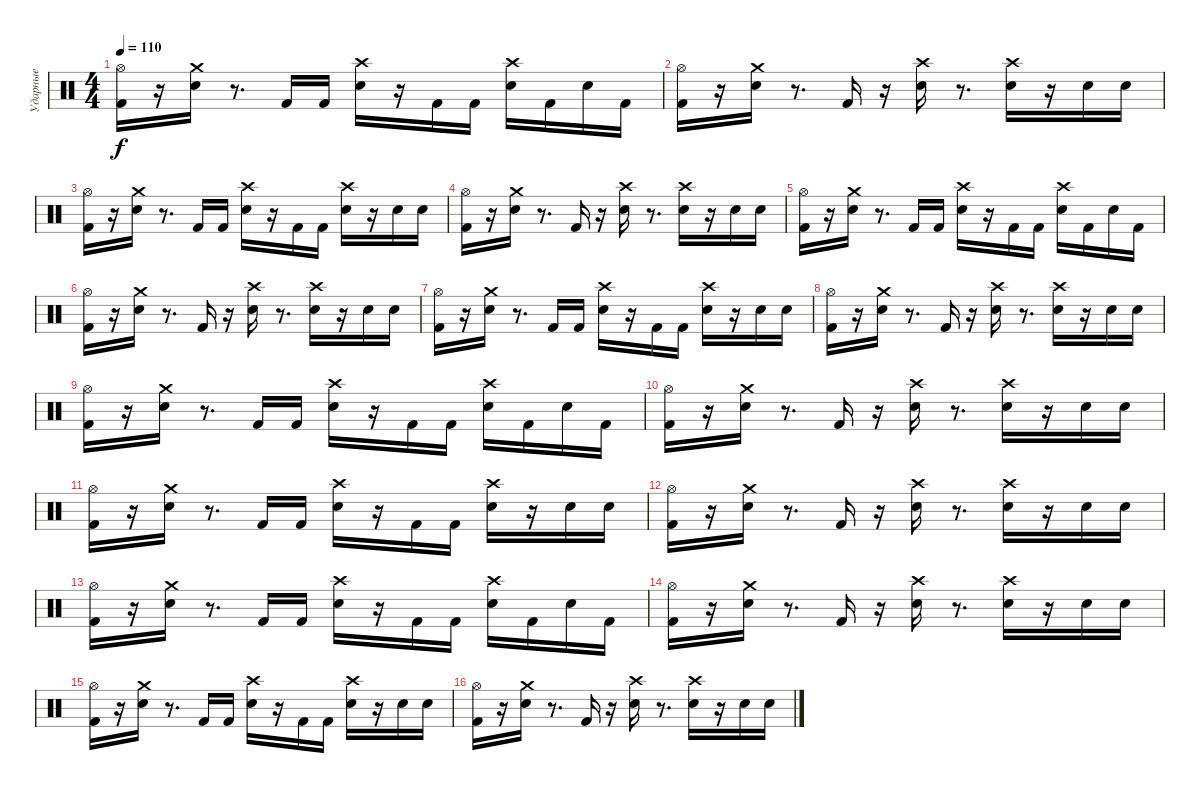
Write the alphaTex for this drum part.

\track ("Ударные" "Ударные") {instrument percussion}
\staff {score}
\articulation defaults
\ts (4 4)
\tempo 110
\clef neutral
\ks c
("Hi-Hat (open)" "Kick (hit) 2").16{dy f} r.16 ("Crash medium (hit)" "Electric Snare (hit)").16 r.8{d} "Kick (hit) 2".16 "Kick (hit) 2".16 ("Crash high (hit)" "Electric Snare (hit)").16 r.16 "Kick (hit) 2".16 "Kick (hit) 2".16 ("Crash high (hit)" "Electric Snare (hit)").16 "Kick (hit) 2".16 "Electric Snare (hit)".16 "Kick (hit) 2".16 |
("Hi-Hat (open)" "Kick (hit) 2").16 r.16 ("Crash medium (hit)" "Electric Snare (hit)").16 r.8{d} "Kick (hit) 2".16 r.16 ("Crash high (hit)" "Electric Snare (hit)").16 r.8{d} ("Crash high (hit)" "Electric Snare (hit)").16 r.16 "Electric Snare (hit)".16 "Electric Snare (hit)".16 |
("Hi-Hat (open)" "Kick (hit) 2").16 r.16 ("Crash medium (hit)" "Electric Snare (hit)").16 r.8{d} "Kick (hit) 2".16 "Kick (hit) 2".16 ("Crash high (hit)" "Electric Snare (hit)").16 r.16 "Kick (hit) 2".16 "Kick (hit) 2".16 ("Crash high (hit)" "Electric Snare (hit)").16 r.16 "Electric Snare (hit)".16 "Electric Snare (hit)".16 |
("Hi-Hat (open)" "Kick (hit) 2").16 r.16 ("Crash medium (hit)" "Electric Snare (hit)").16 r.8{d} "Kick (hit) 2".16 r.16 ("Crash high (hit)" "Electric Snare (hit)").16 r.8{d} ("Crash high (hit)" "Electric Snare (hit)").16 r.16 "Electric Snare (hit)".16 "Electric Snare (hit)".16 |
("Hi-Hat (open)" "Kick (hit) 2").16 r.16 ("Crash medium (hit)" "Electric Snare (hit)").16 r.8{d} "Kick (hit) 2".16 "Kick (hit) 2".16 ("Crash high (hit)" "Electric Snare (hit)").16 r.16 "Kick (hit) 2".16 "Kick (hit) 2".16 ("Crash high (hit)" "Electric Snare (hit)").16 "Kick (hit) 2".16 "Electric Snare (hit)".16 "Kick (hit) 2".16 |
("Hi-Hat (open)" "Kick (hit) 2").16 r.16 ("Crash medium (hit)" "Electric Snare (hit)").16 r.8{d} "Kick (hit) 2".16 r.16 ("Crash high (hit)" "Electric Snare (hit)").16 r.8{d} ("Crash high (hit)" "Electric Snare (hit)").16 r.16 "Electric Snare (hit)".16 "Electric Snare (hit)".16 |
("Hi-Hat (open)" "Kick (hit) 2").16 r.16 ("Crash medium (hit)" "Electric Snare (hit)").16 r.8{d} "Kick (hit) 2".16 "Kick (hit) 2".16 ("Crash high (hit)" "Electric Snare (hit)").16 r.16 "Kick (hit) 2".16 "Kick (hit) 2".16 ("Crash high (hit)" "Electric Snare (hit)").16 r.16 "Electric Snare (hit)".16 "Electric Snare (hit)".16 |
("Hi-Hat (open)" "Kick (hit) 2").16 r.16 ("Crash medium (hit)" "Electric Snare (hit)").16 r.8{d} "Kick (hit) 2".16 r.16 ("Crash high (hit)" "Electric Snare (hit)").16 r.8{d} ("Crash high (hit)" "Electric Snare (hit)").16 r.16 "Electric Snare (hit)".16 "Electric Snare (hit)".16 |
("Hi-Hat (open)" "Kick (hit) 2").16 r.16 ("Crash medium (hit)" "Electric Snare (hit)").16 r.8{d} "Kick (hit) 2".16 "Kick (hit) 2".16 ("Crash high (hit)" "Electric Snare (hit)").16 r.16 "Kick (hit) 2".16 "Kick (hit) 2".16 ("Crash high (hit)" "Electric Snare (hit)").16 "Kick (hit) 2".16 "Electric Snare (hit)".16 "Kick (hit) 2".16 |
("Hi-Hat (open)" "Kick (hit) 2").16 r.16 ("Crash medium (hit)" "Electric Snare (hit)").16 r.8{d} "Kick (hit) 2".16 r.16 ("Crash high (hit)" "Electric Snare (hit)").16 r.8{d} ("Crash high (hit)" "Electric Snare (hit)").16 r.16 "Electric Snare (hit)".16 "Electric Snare (hit)".16 |
("Hi-Hat (open)" "Kick (hit) 2").16 r.16 ("Crash medium (hit)" "Electric Snare (hit)").16 r.8{d} "Kick (hit) 2".16 "Kick (hit) 2".16 ("Crash high (hit)" "Electric Snare (hit)").16 r.16 "Kick (hit) 2".16 "Kick (hit) 2".16 ("Crash high (hit)" "Electric Snare (hit)").16 r.16 "Electric Snare (hit)".16 "Electric Snare (hit)".16 |
("Hi-Hat (open)" "Kick (hit) 2").16 r.16 ("Crash medium (hit)" "Electric Snare (hit)").16 r.8{d} "Kick (hit) 2".16 r.16 ("Crash high (hit)" "Electric Snare (hit)").16 r.8{d} ("Crash high (hit)" "Electric Snare (hit)").16 r.16 "Electric Snare (hit)".16 "Electric Snare (hit)".16 |
("Hi-Hat (open)" "Kick (hit) 2").16 r.16 ("Crash medium (hit)" "Electric Snare (hit)").16 r.8{d} "Kick (hit) 2".16 "Kick (hit) 2".16 ("Crash high (hit)" "Electric Snare (hit)").16 r.16 "Kick (hit) 2".16 "Kick (hit) 2".16 ("Crash high (hit)" "Electric Snare (hit)").16 "Kick (hit) 2".16 "Electric Snare (hit)".16 "Kick (hit) 2".16 |
("Hi-Hat (open)" "Kick (hit) 2").16 r.16 ("Crash medium (hit)" "Electric Snare (hit)").16 r.8{d} "Kick (hit) 2".16 r.16 ("Crash high (hit)" "Electric Snare (hit)").16 r.8{d} ("Crash high (hit)" "Electric Snare (hit)").16 r.16 "Electric Snare (hit)".16 "Electric Snare (hit)".16 |
("Hi-Hat (open)" "Kick (hit) 2").16 r.16 ("Crash medium (hit)" "Electric Snare (hit)").16 r.8{d} "Kick (hit) 2".16 "Kick (hit) 2".16 ("Crash high (hit)" "Electric Snare (hit)").16 r.16 "Kick (hit) 2".16 "Kick (hit) 2".16 ("Crash high (hit)" "Electric Snare (hit)").16 r.16 "Electric Snare (hit)".16 "Electric Snare (hit)".16 |
("Hi-Hat (open)" "Kick (hit) 2").16 r.16 ("Crash medium (hit)" "Electric Snare (hit)").16 r.8{d} "Kick (hit) 2".16 r.16 ("Crash high (hit)" "Electric Snare (hit)").16 r.8{d} ("Crash high (hit)" "Electric Snare (hit)").16 r.16 "Electric Snare (hit)".16 "Electric Snare (hit)".16
